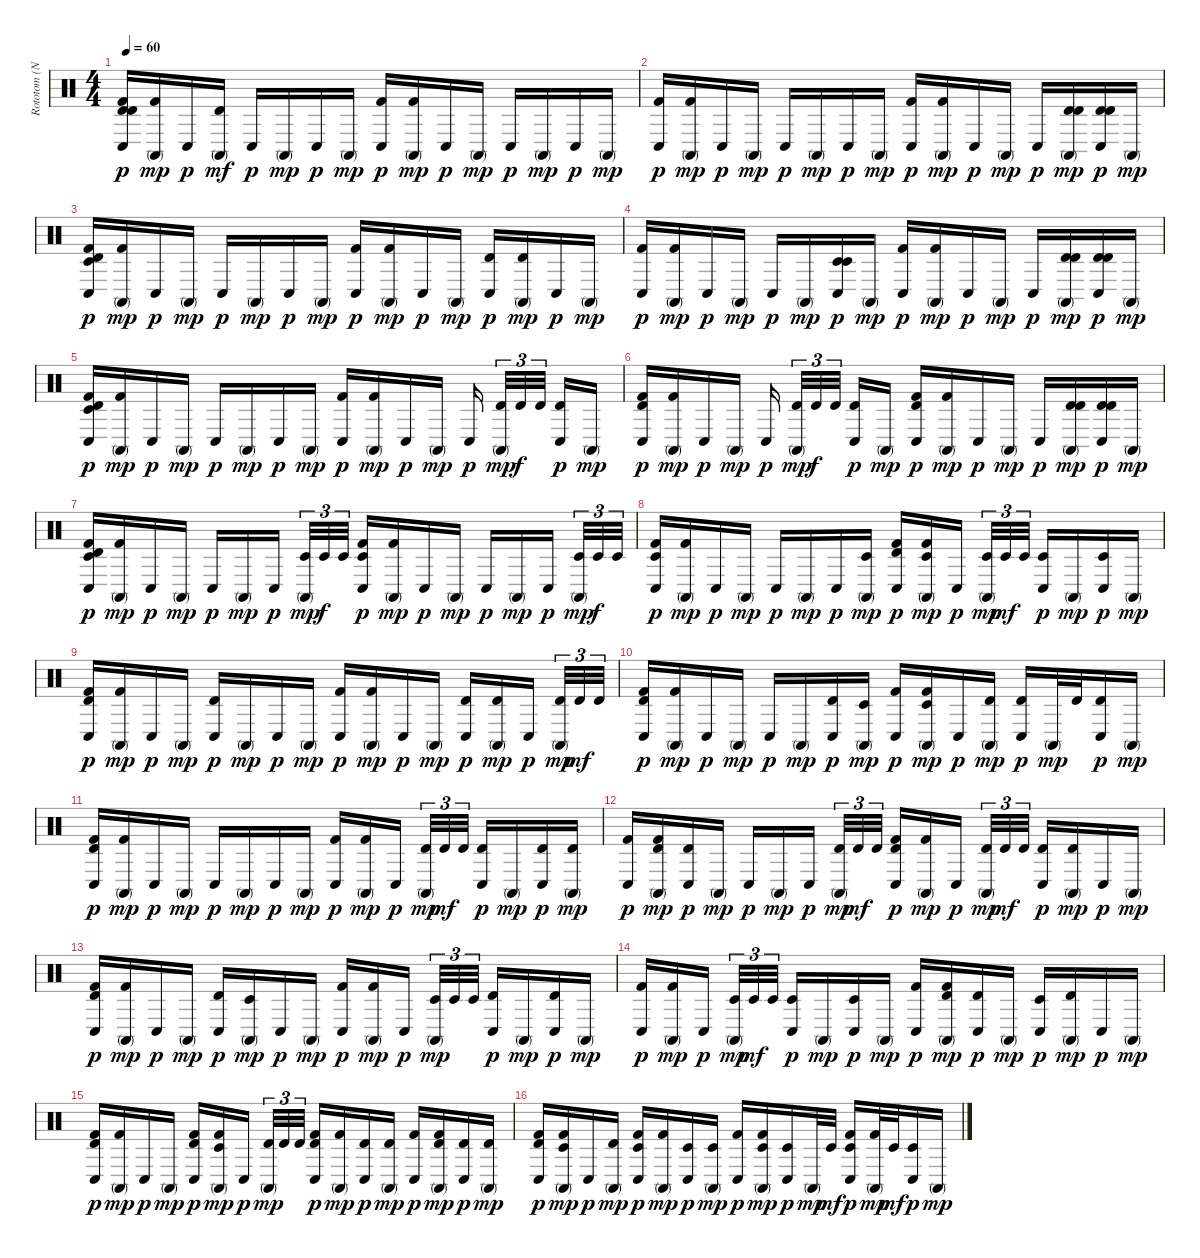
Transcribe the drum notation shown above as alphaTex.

\track ("Rototom (Nick)" "Rototom (N") {instrument percussion}
\staff {score}
\articulation defaults
\ts (4 4)
\tempo 60
\clef neutral
\ks c
("Timbale high (hit)" "Timbale high (hit)" "Kick (hit) 2" "Conga low (hit)").16{dy p} ("Kick (hit) 2" "Conga high (mute)").16{dy mp} "Conga low (hit)".16{dy p} ("Timbale high (hit)" "Conga high (mute)").16{dy mf} "Conga low (hit)".16{dy p} "Conga high (mute)".16{dy mp} "Conga low (hit)".16{dy p} "Conga high (mute)".16{dy mp} ("Kick (hit) 2" "Conga low (hit)").16{dy p} ("Kick (hit) 2" "Conga high (mute)").16{dy mp} "Conga low (hit)".16{dy p} "Conga high (mute)".16{dy mp} "Conga low (hit)".16{dy p} "Conga high (mute)".16{dy mp} "Conga low (hit)".16{dy p} "Conga high (mute)".16{dy mp} |
("Kick (hit) 2" "Conga low (hit)").16{dy p} ("Kick (hit) 2" "Conga high (mute)").16{dy mp} "Conga low (hit)".16{dy p} "Conga high (mute)".16{dy mp} "Conga low (hit)".16{dy p} "Conga high (mute)".16{dy mp} "Conga low (hit)".16{dy p} "Conga high (mute)".16{dy mp} ("Kick (hit) 2" "Conga low (hit)").16{dy p} ("Kick (hit) 2" "Conga high (mute)").16{dy mp} "Conga low (hit)".16{dy p} "Conga high (mute)".16{dy mp} "Conga low (hit)".16{dy p} ("Timbale high (hit)" "Timbale high (hit)" "Conga high (mute)").16{dy mp} ("Timbale high (hit)" "Timbale high (hit)" "Conga low (hit)").16{dy p} "Conga high (mute)".16{dy mp} |
("Timbale high (hit)" "Timbale low (hit)" "Kick (hit) 2" "Conga low (hit)").16{dy p} ("Kick (hit) 2" "Conga high (mute)").16{dy mp} "Conga low (hit)".16{dy p} "Conga high (mute)".16{dy mp} "Conga low (hit)".16{dy p} "Conga high (mute)".16{dy mp} "Conga low (hit)".16{dy p} "Conga high (mute)".16{dy mp} ("Kick (hit) 2" "Conga low (hit)").16{dy p} ("Kick (hit) 2" "Conga high (mute)").16{dy mp} "Conga low (hit)".16{dy p} "Conga high (mute)".16{dy mp} ("Timbale high (hit)" "Conga low (hit)").16{dy p} ("Timbale high (hit)" "Conga high (mute)").16{dy mp} "Conga low (hit)".16{dy p} "Conga high (mute)".16{dy mp} |
("Kick (hit) 2" "Conga low (hit)").16{dy p} ("Kick (hit) 2" "Conga high (mute)").16{dy mp} "Conga low (hit)".16{dy p} "Conga high (mute)".16{dy mp} "Conga low (hit)".16{dy p} "Conga high (mute)".16{dy mp} ("Timbale low (hit)" "Timbale low (hit)" "Conga low (hit)").16{dy p} "Conga high (mute)".16{dy mp} ("Kick (hit) 2" "Conga low (hit)").16{dy p} ("Kick (hit) 2" "Conga high (mute)").16{dy mp} "Conga low (hit)".16{dy p} "Conga high (mute)".16{dy mp} "Conga low (hit)".16{dy p} ("Timbale high (hit)" "Timbale high (hit)" "Conga high (mute)").16{dy mp} ("Timbale high (hit)" "Timbale high (hit)" "Conga low (hit)").16{dy p} "Conga high (mute)".16{dy mp} |
("Timbale high (hit)" "Timbale low (hit)" "Kick (hit) 2" "Conga low (hit)").16{dy p} ("Kick (hit) 2" "Conga high (mute)").16{dy mp} "Conga low (hit)".16{dy p} "Conga high (mute)".16{dy mp} "Conga low (hit)".16{dy p} "Conga high (mute)".16{dy mp} "Conga low (hit)".16{dy p} "Conga high (mute)".16{dy mp} ("Kick (hit) 2" "Conga low (hit)").16{dy p} ("Kick (hit) 2" "Conga high (mute)").16{dy mp} "Conga low (hit)".16{dy p} "Conga high (mute)".16{dy mp} "Conga low (hit)".16{dy p} ("Timbale high (hit)" "Conga high (mute)").32{tu (3 2) dy mp} "Timbale high (hit)".32{tu (3 2) dy f} "Timbale high (hit)".32{tu (3 2)} ("Timbale high (hit)" "Conga low (hit)").16{dy p} "Conga high (mute)".16{dy mp} |
("Timbale high (hit)" "Kick (hit) 2" "Conga low (hit)").16{dy p} ("Kick (hit) 2" "Conga high (mute)").16{dy mp} "Conga low (hit)".16{dy p} "Conga high (mute)".16{dy mp} "Conga low (hit)".16{dy p} ("Timbale high (hit)" "Conga high (mute)").32{tu (3 2) dy mp} "Timbale high (hit)".32{tu (3 2) dy f} "Timbale high (hit)".32{tu (3 2)} ("Timbale high (hit)" "Conga low (hit)").16{dy p} "Conga high (mute)".16{dy mp} ("Timbale high (hit)" "Kick (hit) 2" "Conga low (hit)").16{dy p} ("Kick (hit) 2" "Conga high (mute)").16{dy mp} "Conga low (hit)".16{dy p} "Conga high (mute)".16{dy mp} "Conga low (hit)".16{dy p} ("Timbale high (hit)" "Timbale high (hit)" "Conga high (mute)").16{dy mp} ("Timbale high (hit)" "Timbale high (hit)" "Conga low (hit)").16{dy p} "Conga high (mute)".16{dy mp} |
("Timbale high (hit)" "Timbale low (hit)" "Kick (hit) 2" "Conga low (hit)").16{dy p} ("Kick (hit) 2" "Conga high (mute)").16{dy mp} "Conga low (hit)".16{dy p} "Conga high (mute)".16{dy mp} "Conga low (hit)".16{dy p} "Conga high (mute)".16{dy mp} "Conga low (hit)".16{dy p} ("Timbale low (hit)" "Conga high (mute)").32{tu (3 2) dy mp} "Timbale low (hit)".32{tu (3 2) dy f} "Timbale low (hit)".32{tu (3 2)} ("Timbale low (hit)" "Kick (hit) 2" "Conga low (hit)").16{dy p} ("Kick (hit) 2" "Conga high (mute)").16{dy mp} "Conga low (hit)".16{dy p} "Conga high (mute)".16{dy mp} "Conga low (hit)".16{dy p} "Conga high (mute)".16{dy mp} "Conga low (hit)".16{dy p} ("Timbale low (hit)" "Conga high (mute)").32{tu (3 2) dy mp} "Timbale low (hit)".32{tu (3 2) dy f} "Timbale low (hit)".32{tu (3 2)} |
("Timbale low (hit)" "Kick (hit) 2" "Conga low (hit)").16{dy p} ("Kick (hit) 2" "Conga high (mute)").16{dy mp} "Conga low (hit)".16{dy p} "Conga high (mute)".16{dy mp} "Conga low (hit)".16{dy p} "Conga high (mute)".16{dy mp} "Conga low (hit)".16{dy p} ("Timbale low (hit)" "Conga high (mute)").16{dy mp} ("Timbale high (hit)" "Kick (hit) 2" "Conga low (hit)").16{dy p} ("Timbale low (hit)" "Kick (hit) 2" "Conga high (mute)").16{dy mp} "Conga low (hit)".16{dy p} ("Timbale low (hit)" "Conga high (mute)").32{tu (3 2) dy mp} "Timbale low (hit)".32{tu (3 2) dy mf} "Timbale low (hit)".32{tu (3 2)} ("Timbale low (hit)" "Conga low (hit)").16{dy p} "Conga high (mute)".16{dy mp} ("Timbale low (hit)" "Conga low (hit)").16{dy p} "Conga high (mute)".16{dy mp} |
("Timbale high (hit)" "Kick (hit) 2" "Conga low (hit)").16{dy p} ("Kick (hit) 2" "Conga high (mute)").16{dy mp} "Conga low (hit)".16{dy p} "Conga high (mute)".16{dy mp} ("Timbale high (hit)" "Conga low (hit)").16{dy p} "Conga high (mute)".16{dy mp} "Conga low (hit)".16{dy p} "Conga high (mute)".16{dy mp} ("Kick (hit) 2" "Conga low (hit)").16{dy p} ("Kick (hit) 2" "Conga high (mute)").16{dy mp} "Conga low (hit)".16{dy p} "Conga high (mute)".16{dy mp} ("Timbale high (hit)" "Conga low (hit)").16{dy p} ("Timbale high (hit)" "Conga high (mute)").16{dy mp} "Conga low (hit)".16{dy p} ("Timbale high (hit)" "Conga high (mute)").32{tu (3 2) dy mp} "Timbale high (hit)".32{tu (3 2) dy mf} "Timbale high (hit)".32{tu (3 2)} |
("Timbale high (hit)" "Kick (hit) 2" "Conga low (hit)").16{dy p} ("Kick (hit) 2" "Conga high (mute)").16{dy mp} "Conga low (hit)".16{dy p} "Conga high (mute)".16{dy mp} "Conga low (hit)".16{dy p} "Conga high (mute)".16{dy mp} ("Timbale high (hit)" "Conga low (hit)").16{dy p} ("Timbale low (hit)" "Conga high (mute)").16{dy mp} ("Kick (hit) 2" "Conga low (hit)").16{dy p} ("Timbale low (hit)" "Kick (hit) 2" "Conga high (mute)").16{dy mp} "Conga low (hit)".16{dy p} ("Timbale high (hit)" "Conga high (mute)").16{dy mp} ("Timbale high (hit)" "Conga low (hit)").16{dy p} "Conga high (mute)".32{dy mp} "Timbale high (hit)".32 ("Timbale high (hit)" "Conga low (hit)").16{dy p} "Conga high (mute)".16{dy mp} |
("Timbale high (hit)" "Kick (hit) 2" "Conga low (hit)").16{dy p} ("Kick (hit) 2" "Conga high (mute)").16{dy mp} "Conga low (hit)".16{dy p} "Conga high (mute)".16{dy mp} "Conga low (hit)".16{dy p} "Conga high (mute)".16{dy mp} "Conga low (hit)".16{dy p} "Conga high (mute)".16{dy mp} ("Kick (hit) 2" "Conga low (hit)").16{dy p} ("Kick (hit) 2" "Conga high (mute)").16{dy mp} "Conga low (hit)".16{dy p} ("Timbale high (hit)" "Conga high (mute)").32{tu (3 2) dy mp} "Timbale high (hit)".32{tu (3 2) dy mf} "Timbale high (hit)".32{tu (3 2)} ("Timbale high (hit)" "Conga low (hit)").16{dy p} "Conga high (mute)".16{dy mp} ("Timbale high (hit)" "Conga low (hit)").16{dy p} ("Timbale high (hit)" "Conga high (mute)").16{dy mp} |
("Kick (hit) 2" "Conga low (hit)").16{dy p} ("Timbale high (hit)" "Kick (hit) 2" "Conga high (mute)").16{dy mp} ("Timbale high (hit)" "Conga low (hit)").16{dy p} "Conga high (mute)".16{dy mp} "Conga low (hit)".16{dy p} "Conga high (mute)".16{dy mp} "Conga low (hit)".16{dy p} ("Timbale high (hit)" "Conga high (mute)").32{tu (3 2) dy mp} "Timbale high (hit)".32{tu (3 2) dy mf} "Timbale high (hit)".32{tu (3 2)} ("Timbale high (hit)" "Kick (hit) 2" "Conga low (hit)").16{dy p} ("Kick (hit) 2" "Conga high (mute)").16{dy mp} "Conga low (hit)".16{dy p} ("Timbale high (hit)" "Conga high (mute)").32{tu (3 2) dy mp} "Timbale high (hit)".32{tu (3 2) dy mf} "Timbale high (hit)".32{tu (3 2)} ("Timbale high (hit)" "Conga low (hit)").16{dy p} ("Timbale high (hit)" "Conga high (mute)").16{dy mp} "Conga low (hit)".16{dy p} "Conga high (mute)".16{dy mp} |
("Timbale high (hit)" "Kick (hit) 2" "Conga low (hit)").16{dy p} ("Kick (hit) 2" "Conga high (mute)").16{dy mp} "Conga low (hit)".16{dy p} "Conga high (mute)".16{dy mp} ("Timbale high (hit)" "Conga low (hit)").16{dy p} ("Timbale low (hit)" "Conga high (mute)").16{dy mp} "Conga low (hit)".16{dy p} "Conga high (mute)".16{dy mp} ("Kick (hit) 2" "Conga low (hit)").16{dy p} ("Kick (hit) 2" "Conga high (mute)").16{dy mp} "Conga low (hit)".16{dy p} ("Timbale low (hit)" "Conga high (mute)").32{tu (3 2) dy mp} "Timbale low (hit)".32{tu (3 2)} "Timbale low (hit)".32{tu (3 2)} ("Timbale high (hit)" "Conga low (hit)").16{dy p} "Conga high (mute)".16{dy mp} ("Timbale high (hit)" "Conga low (hit)").16{dy p} "Conga high (mute)".16{dy mp} |
("Kick (hit) 2" "Conga low (hit)").16{dy p} ("Kick (hit) 2" "Conga high (mute)").16{dy mp} "Conga low (hit)".16{dy p} ("Timbale low (hit)" "Conga high (mute)").32{tu (3 2) dy mp} "Timbale low (hit)".32{tu (3 2) dy mf} "Timbale low (hit)".32{tu (3 2)} ("Timbale low (hit)" "Conga low (hit)").16{dy p} "Conga high (mute)".16{dy mp} ("Timbale low (hit)" "Conga low (hit)").16{dy p} "Conga high (mute)".16{dy mp} ("Kick (hit) 2" "Conga low (hit)").16{dy p} ("Timbale high (hit)" "Kick (hit) 2" "Conga high (mute)").16{dy mp} ("Timbale high (hit)" "Conga low (hit)").16{dy p} "Conga high (mute)".16{dy mp} ("Timbale low (hit)" "Conga low (hit)").16{dy p} ("Timbale high (hit)" "Conga high (mute)").16{dy mp} "Conga low (hit)".16{dy p} "Conga high (mute)".16{dy mp} |
("Timbale high (hit)" "Kick (hit) 2" "Conga low (hit)").16{dy p} ("Kick (hit) 2" "Conga high (mute)").16{dy mp} "Conga low (hit)".16{dy p} "Conga high (mute)".16{dy mp} ("Timbale high (hit)" "Kick (hit) 2" "Conga low (hit)").16{dy p} ("Timbale low (hit)" "Kick (hit) 2" "Conga high (mute)").16{dy mp} "Conga low (hit)".16{dy p} ("Timbale high (hit)" "Conga high (mute)").32{tu (3 2) dy mp} "Timbale high (hit)".32{tu (3 2)} "Timbale high (hit)".32{tu (3 2)} ("Timbale high (hit)" "Kick (hit) 2" "Conga low (hit)").16{dy p} ("Kick (hit) 2" "Conga high (mute)").16{dy mp} ("Timbale high (hit)" "Conga low (hit)").16{dy p} ("Timbale high (hit)" "Conga high (mute)").16{dy mp} ("Kick (hit) 2" "Conga low (hit)").16{dy p} ("Timbale high (hit)" "Kick (hit) 2" "Conga high (mute)").16{dy mp} ("Timbale high (hit)" "Conga low (hit)").16{dy p} ("Timbale high (hit)" "Conga high (mute)").16{dy mp} |
("Timbale high (hit)" "Kick (hit) 2" "Conga low (hit)").16{dy p} ("Timbale low (hit)" "Kick (hit) 2" "Conga high (mute)").16{dy mp} "Conga low (hit)".16{dy p} ("Timbale high (hit)" "Conga high (mute)").16{dy mp} ("Timbale low (hit)" "Kick (hit) 2" "Conga low (hit)").16{dy p} ("Kick (hit) 2" "Conga high (mute)").16{dy mp} ("Timbale low (hit)" "Conga low (hit)").16{dy p} ("Timbale low (hit)" "Conga high (mute)").16{dy mp} ("Kick (hit) 2" "Conga low (hit)").16{dy p} ("Timbale low (hit)" "Kick (hit) 2" "Conga high (mute)").16{dy mp} ("Timbale low (hit)" "Conga low (hit)").16{dy p} "Conga high (mute)".32{dy mp} "Timbale low (hit)".32{dy mf} ("Timbale low (hit)" "Kick (hit) 2" "Conga low (hit)").16{dy p} ("Kick (hit) 2" "Conga high (mute)").32{dy mp} "Timbale low (hit)".32{dy mf} ("Timbale low (hit)" "Conga low (hit)").16{dy p} "Conga high (mute)".16{dy mp}
